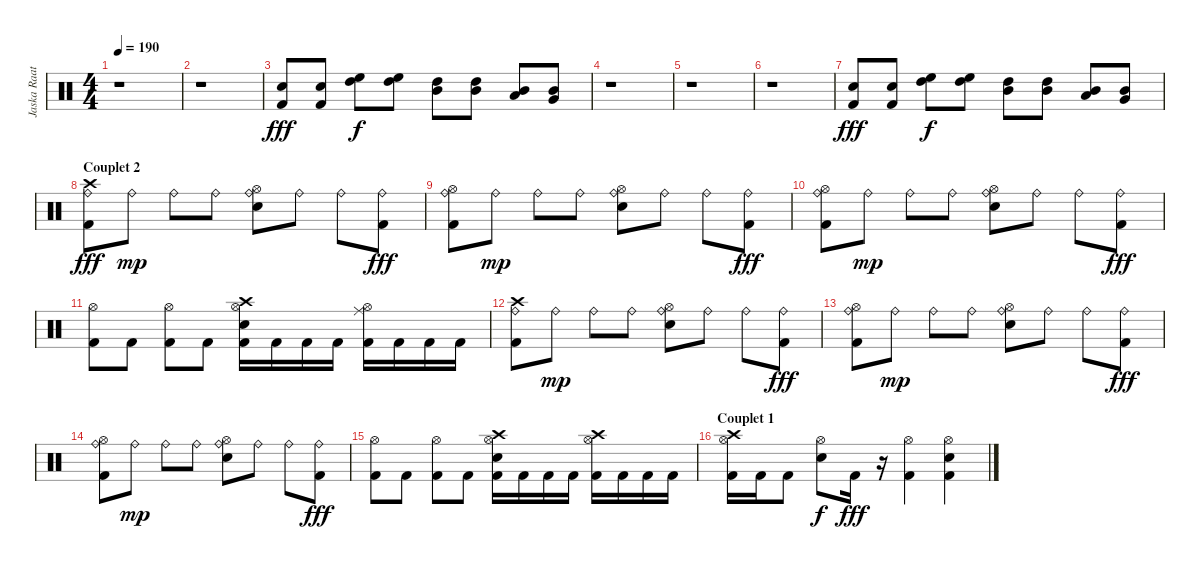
\track ("Jaska Raatikainen (Drums)" "Jaska Raat") {instrument percussion}
\staff {score}
\articulation defaults
\ts (4 4)
\tempo 190
\clef neutral
\ks c
r.1{dy fff} |
r.1 |
("Electric Snare (hit)" "Kick (hit) 2").8 ("Electric Snare (hit)" "Kick (hit) 2").8 ("High Floor Tom (hit)" "High Tom (hit)").8{dy f} ("High Floor Tom (hit)" "High Tom (hit)").8 ("High Tom (hit)" "Mid Tom (hit)").8 ("High Tom (hit)" "Mid Tom (hit)").8 ("Mid Tom (hit)" "Low Tom (hit)").8 ("Mid Tom (hit)" "Very Low Tom (hit)").8 |
r.1 |
r.1 |
r.1 |
("Electric Snare (hit)" "Kick (hit) 2").8{dy fff} ("Electric Snare (hit)" "Kick (hit) 2").8 ("High Floor Tom (hit)" "High Tom (hit)").8{dy f} ("High Floor Tom (hit)" "High Tom (hit)").8 ("High Tom (hit)" "Mid Tom (hit)").8 ("High Tom (hit)" "Mid Tom (hit)").8 ("Mid Tom (hit)" "Low Tom (hit)").8 ("Mid Tom (hit)" "Very Low Tom (hit)").8 |
\section ("" "Couplet 2")
("Ride (bell)" "Crash high (hit)" "Kick (hit) 2").8{dy fff} "Ride (bell)".8{dy mp} "Ride (bell)".8 "Ride (bell)".8 ("Ride (bell)" "Hi-Hat (open)" "Electric Snare (hit)").8 "Ride (bell)".8 "Ride (bell)".8 ("Ride (bell)" "Kick (hit) 2").8{dy fff} |
("Ride (bell)" "Hi-Hat (open)" "Kick (hit) 2").8 "Ride (bell)".8{dy mp} "Ride (bell)".8 "Ride (bell)".8 ("Ride (bell)" "Hi-Hat (open)" "Electric Snare (hit)").8 "Ride (bell)".8 "Ride (bell)".8 ("Ride (bell)" "Kick (hit) 2").8{dy fff} |
("Ride (bell)" "Hi-Hat (open)" "Kick (hit) 2").8 "Ride (bell)".8{dy mp} "Ride (bell)".8 "Ride (bell)".8 ("Ride (bell)" "Hi-Hat (open)" "Electric Snare (hit)").8 "Ride (bell)".8 "Ride (bell)".8 ("Ride (bell)" "Kick (hit) 2").8{dy fff} |
("Hi-Hat (open)" "Kick (hit) 2").8 "Kick (hit) 2".8 ("Hi-Hat (open)" "Kick (hit) 2").8 "Kick (hit) 2".8 ("Crash high (hit)" "Hi-Hat (open)" "Electric Snare (hit)" "Kick (hit) 2").16 "Kick (hit) 2".16 "Kick (hit) 2".16 "Kick (hit) 2".16 ("Hi-Hat (open)" "Ride (middle)" "Kick (hit) 2").16 "Kick (hit) 2".16 "Kick (hit) 2".16 "Kick (hit) 2".16 |
("Ride (bell)" "Crash high (hit)" "Kick (hit) 2").8 "Ride (bell)".8{dy mp} "Ride (bell)".8 "Ride (bell)".8 ("Ride (bell)" "Hi-Hat (open)" "Electric Snare (hit)").8 "Ride (bell)".8 "Ride (bell)".8 ("Ride (bell)" "Kick (hit) 2").8{dy fff} |
("Ride (bell)" "Hi-Hat (open)" "Kick (hit) 2").8 "Ride (bell)".8{dy mp} "Ride (bell)".8 "Ride (bell)".8 ("Ride (bell)" "Hi-Hat (open)" "Electric Snare (hit)").8 "Ride (bell)".8 "Ride (bell)".8 ("Ride (bell)" "Kick (hit) 2").8{dy fff} |
("Ride (bell)" "Hi-Hat (open)" "Kick (hit) 2").8 "Ride (bell)".8{dy mp} "Ride (bell)".8 "Ride (bell)".8 ("Ride (bell)" "Hi-Hat (open)" "Electric Snare (hit)").8 "Ride (bell)".8 "Ride (bell)".8 ("Ride (bell)" "Kick (hit) 2").8{dy fff} |
("Hi-Hat (open)" "Kick (hit) 2").8 "Kick (hit) 2".8 ("Hi-Hat (open)" "Kick (hit) 2").8 "Kick (hit) 2".8 ("Crash high (hit)" "Hi-Hat (open)" "Electric Snare (hit)" "Kick (hit) 2").16 "Kick (hit) 2".16 "Kick (hit) 2".16 "Kick (hit) 2".16 ("Crash high (hit)" "Hi-Hat (open)" "Kick (hit) 2").16 "Kick (hit) 2".16 "Kick (hit) 2".16 "Kick (hit) 2".16 |
\section ("" "Couplet 1")
("Hi-Hat (open)" "Crash high (hit)" "Kick (hit) 2").16 "Kick (hit) 2".16 "Kick (hit) 2".8 ("Hi-Hat (open)" "Electric Snare (hit)").8{dy f} "Kick (hit) 2".16{dy fff} r.16 ("Hi-Hat (open)" "Kick (hit) 2").4 ("Hi-Hat (open)" "Electric Snare (hit)" "Kick (hit) 2").4
